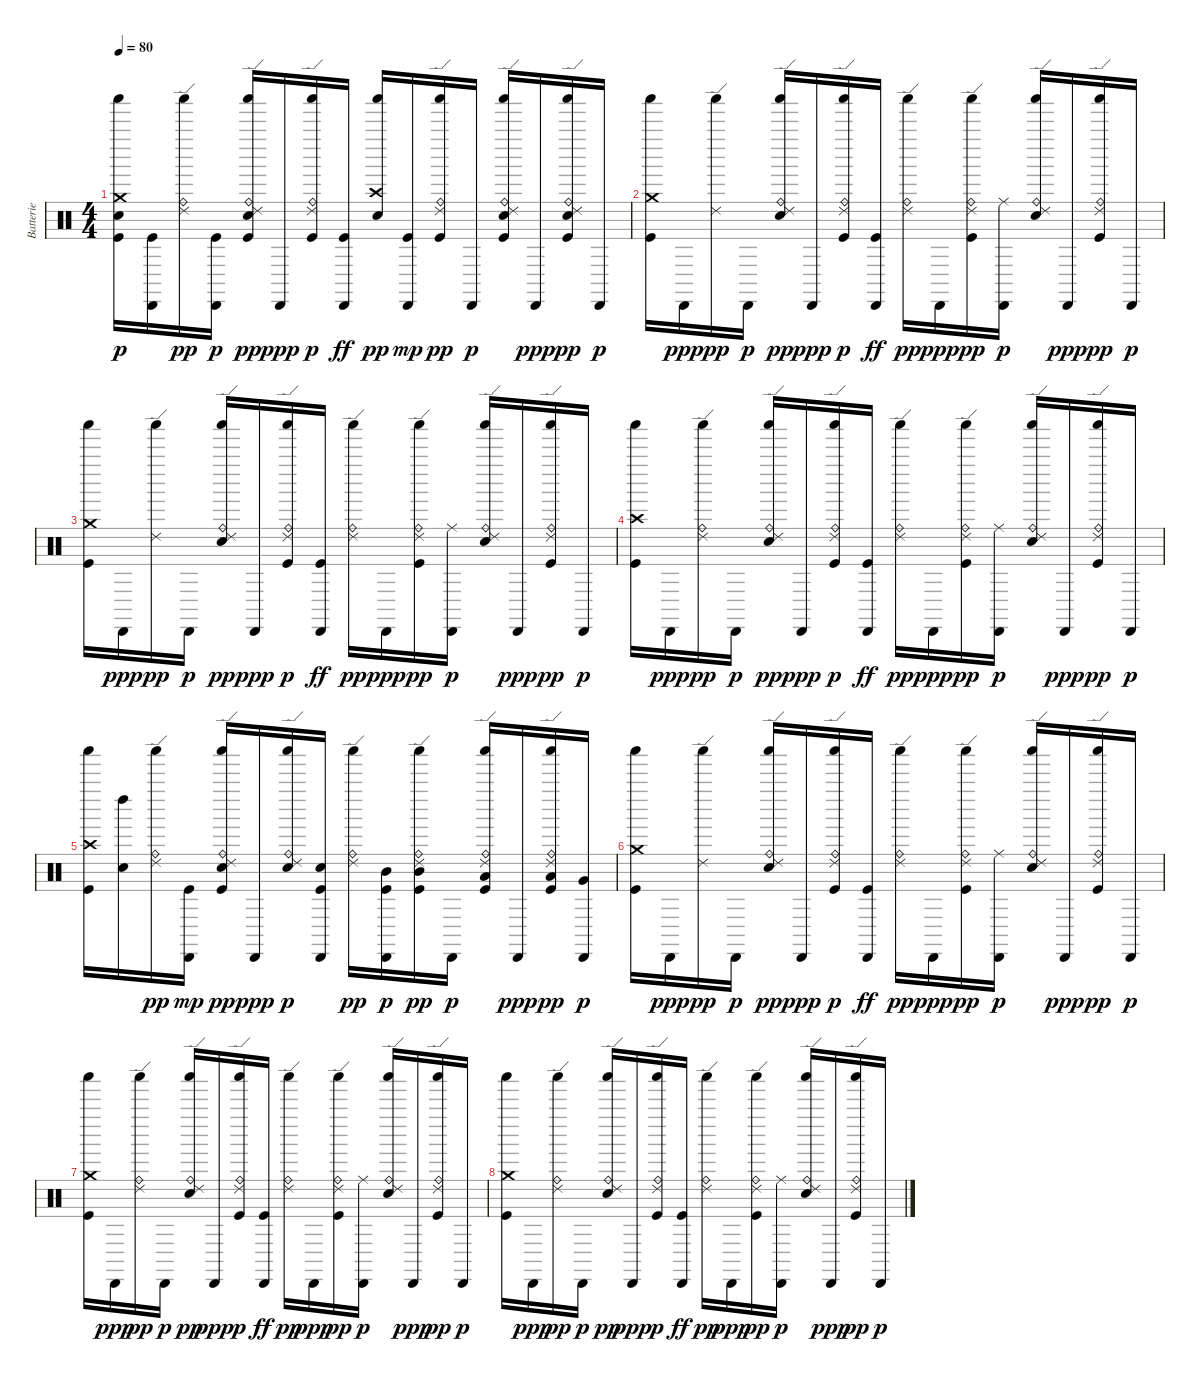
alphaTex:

\track ("Batterie" "Batterie") {instrument percussion}
\staff {score}
\articulation defaults
\ts (4 4)
\tempo 80
\clef neutral
\ks c
("Kick (hit)" "Snare (hit) 2" "Crash medium (hit)" "Shaker (hit)").16{dy p} ("Cabasa (hit)" "Kick (hit)").16 ("Ride (edge) 2" "Ride (bell)" "Shaker (hit)").16{dy pp} ("Cabasa (hit)" "Kick (hit)").16{dy p} ("Kick (hit)" "Snare (hit) 2" "Ride (edge) 2" "Ride (bell)" "Shaker (hit)").16{dy pp} "Cabasa (hit)".16{dy ppp} ("Kick (hit)" "Ride (edge) 2" "Ride (bell)" "Shaker (hit)").16{dy p} ("Cabasa (hit)" "Kick (hit)").16{dy ff} ("Snare (hit) 2" "Crash high (hit)" "Shaker (hit)").16{dy pp} ("Cabasa (hit)" "Kick (hit)").16{dy mp} ("Kick (hit)" "Ride (edge) 2" "Ride (bell)" "Shaker (hit)").16{dy pp} "Cabasa (hit)".16{dy p} ("Kick (hit)" "Snare (hit) 2" "Ride (edge) 2" "Ride (bell)" "Shaker (hit)").16 "Cabasa (hit)".16{dy ppp} ("Kick (hit)" "Snare (hit) 2" "Ride (edge) 2" "Ride (bell)" "Shaker (hit)").16{dy pp} "Cabasa (hit)".16{dy p} |
("Kick (hit)" "Crash medium (hit)" "Shaker (hit)").16 "Cabasa (hit)".16{dy ppp} ("Ride (edge) 2" "Shaker (hit)").16{dy pp} "Cabasa (hit)".16{dy p} ("Snare (hit) 2" "Ride (edge) 2" "Ride (bell)" "Shaker (hit)").16{dy pp} "Cabasa (hit)".16{dy ppp} ("Kick (hit)" "Ride (edge) 2" "Ride (bell)" "Shaker (hit)").16{dy p} ("Cabasa (hit)" "Kick (hit)").16{dy ff} ("Ride (edge) 2" "Ride (bell)" "Shaker (hit)").16{dy pp} "Cabasa (hit)".16{dy ppp} ("Kick (hit)" "Ride (edge) 2" "Ride (bell)" "Shaker (hit)").16{dy pp} ("Cabasa (hit)" "Ride (middle)").16{dy p} ("Snare (hit) 2" "Ride (edge) 2" "Ride (bell)" "Shaker (hit)").16 "Cabasa (hit)".16{dy ppp} ("Kick (hit)" "Ride (edge) 2" "Ride (bell)" "Shaker (hit)").16{dy pp} "Cabasa (hit)".16{dy p} |
("Kick (hit)" "Crash medium (hit)" "Shaker (hit)").16 "Cabasa (hit)".16{dy ppp} ("Ride (edge) 2" "Shaker (hit)").16{dy pp} "Cabasa (hit)".16{dy p} ("Snare (hit) 2" "Ride (edge) 2" "Ride (bell)" "Shaker (hit)").16{dy pp} "Cabasa (hit)".16{dy ppp} ("Kick (hit)" "Ride (edge) 2" "Ride (bell)" "Shaker (hit)").16{dy p} ("Cabasa (hit)" "Kick (hit)").16{dy ff} ("Ride (edge) 2" "Ride (bell)" "Shaker (hit)").16{dy pp} "Cabasa (hit)".16{dy ppp} ("Kick (hit)" "Ride (edge) 2" "Ride (bell)" "Shaker (hit)").16{dy pp} ("Cabasa (hit)" "Ride (middle)").16{dy p} ("Snare (hit) 2" "Ride (edge) 2" "Ride (bell)" "Shaker (hit)").16 "Cabasa (hit)".16{dy ppp} ("Kick (hit)" "Ride (edge) 2" "Ride (bell)" "Shaker (hit)").16{dy pp} "Cabasa (hit)".16{dy p} |
("Kick (hit)" "Crash high (hit)" "Shaker (hit)").16 "Cabasa (hit)".16{dy ppp} ("Ride (edge) 2" "Ride (bell)" "Shaker (hit)").16{dy pp} "Cabasa (hit)".16{dy p} ("Snare (hit) 2" "Ride (edge) 2" "Ride (bell)" "Shaker (hit)").16{dy pp} "Cabasa (hit)".16{dy ppp} ("Kick (hit)" "Ride (edge) 2" "Ride (bell)" "Shaker (hit)").16{dy p} ("Cabasa (hit)" "Kick (hit)").16{dy ff} ("Ride (edge) 2" "Ride (bell)" "Shaker (hit)").16{dy pp} "Cabasa (hit)".16{dy ppp} ("Kick (hit)" "Ride (edge) 2" "Ride (bell)" "Shaker (hit)").16{dy pp} ("Cabasa (hit)" "Ride (middle)").16{dy p} ("Snare (hit) 2" "Ride (edge) 2" "Ride (bell)" "Shaker (hit)").16 "Cabasa (hit)".16{dy ppp} ("Kick (hit)" "Ride (edge) 2" "Ride (bell)" "Shaker (hit)").16{dy pp} "Cabasa (hit)".16{dy p} |
("Kick (hit)" "Crash high (hit)" "Shaker (hit)").16 ("Snare (hit) 2" "Left Maraca (hit)").16 ("Ride (edge) 2" "Ride (bell)" "Shaker (hit)").16{dy pp} ("Cabasa (hit)" "Kick (hit)").16{dy mp} ("Kick (hit)" "Snare (hit) 2" "Ride (edge) 2" "Ride (bell)" "Shaker (hit)").16{dy pp} "Cabasa (hit)".16{dy ppp} ("Snare (hit) 2" "Ride (edge) 2" "Ride (bell)" "Shaker (hit)").16{dy p} ("Cabasa (hit)" "Kick (hit)" "Snare (hit) 2").16 ("Ride (edge) 2" "Ride (bell)" "Shaker (hit)").16{dy pp} ("Cabasa (hit)" "Kick (hit)" "Mid Tom (hit)").16{dy p} ("Kick (hit)" "Ride (edge) 2" "Ride (bell)" "Mid Tom (hit)" "Shaker (hit)").16{dy pp} "Cabasa (hit)".16{dy p} ("Kick (hit)" "Ride (edge) 2" "Ride (bell)" "Low Tom (hit)" "Shaker (hit)").16 "Cabasa (hit)".16{dy ppp} ("Kick (hit)" "Ride (edge) 2" "Ride (bell)" "Low Tom (hit)" "Shaker (hit)").16{dy pp} ("Cabasa (hit)" "Very Low Tom (hit)").16{dy p} |
("Kick (hit)" "Crash medium (hit)" "Shaker (hit)").16 "Cabasa (hit)".16{dy ppp} ("Ride (edge) 2" "Shaker (hit)").16{dy pp} "Cabasa (hit)".16{dy p} ("Snare (hit) 2" "Ride (edge) 2" "Ride (bell)" "Shaker (hit)").16{dy pp} "Cabasa (hit)".16{dy ppp} ("Kick (hit)" "Ride (edge) 2" "Ride (bell)" "Shaker (hit)").16{dy p} ("Cabasa (hit)" "Kick (hit)").16{dy ff} ("Ride (edge) 2" "Ride (bell)" "Shaker (hit)").16{dy pp} "Cabasa (hit)".16{dy ppp} ("Kick (hit)" "Ride (edge) 2" "Ride (bell)" "Shaker (hit)").16{dy pp} ("Cabasa (hit)" "Ride (middle)").16{dy p} ("Snare (hit) 2" "Ride (edge) 2" "Ride (bell)" "Shaker (hit)").16 "Cabasa (hit)".16{dy ppp} ("Kick (hit)" "Ride (edge) 2" "Ride (bell)" "Shaker (hit)").16{dy pp} "Cabasa (hit)".16{dy p} |
("Kick (hit)" "Crash medium (hit)" "Shaker (hit)").16 "Cabasa (hit)".16{dy ppp} ("Ride (edge) 2" "Ride (bell)" "Shaker (hit)").16{dy pp} "Cabasa (hit)".16{dy p} ("Snare (hit) 2" "Ride (edge) 2" "Ride (bell)" "Shaker (hit)").16{dy pp} "Cabasa (hit)".16{dy ppp} ("Kick (hit)" "Ride (edge) 2" "Ride (bell)" "Shaker (hit)").16{dy p} ("Cabasa (hit)" "Kick (hit)").16{dy ff} ("Ride (edge) 2" "Ride (bell)" "Shaker (hit)").16{dy pp} "Cabasa (hit)".16{dy ppp} ("Kick (hit)" "Ride (edge) 2" "Ride (bell)" "Shaker (hit)").16{dy pp} ("Cabasa (hit)" "Ride (middle)").16{dy p} ("Snare (hit) 2" "Ride (edge) 2" "Ride (bell)" "Shaker (hit)").16 "Cabasa (hit)".16{dy ppp} ("Kick (hit)" "Ride (edge) 2" "Ride (bell)" "Shaker (hit)").16{dy pp} "Cabasa (hit)".16{dy p} |
("Kick (hit)" "Crash medium (hit)" "Shaker (hit)").16 "Cabasa (hit)".16{dy ppp} ("Ride (edge) 2" "Ride (bell)" "Shaker (hit)").16{dy pp} "Cabasa (hit)".16{dy p} ("Snare (hit) 2" "Ride (edge) 2" "Ride (bell)" "Shaker (hit)").16{dy pp} "Cabasa (hit)".16{dy ppp} ("Kick (hit)" "Ride (edge) 2" "Ride (bell)" "Shaker (hit)").16{dy p} ("Cabasa (hit)" "Kick (hit)").16{dy ff} ("Ride (edge) 2" "Ride (bell)" "Shaker (hit)").16{dy pp} "Cabasa (hit)".16{dy ppp} ("Kick (hit)" "Ride (edge) 2" "Ride (bell)" "Shaker (hit)").16{dy pp} ("Cabasa (hit)" "Ride (middle)").16{dy p} ("Snare (hit) 2" "Ride (edge) 2" "Ride (bell)" "Shaker (hit)").16 "Cabasa (hit)".16{dy ppp} ("Kick (hit)" "Ride (edge) 2" "Ride (bell)" "Shaker (hit)").16{dy pp} "Cabasa (hit)".16{dy p}
